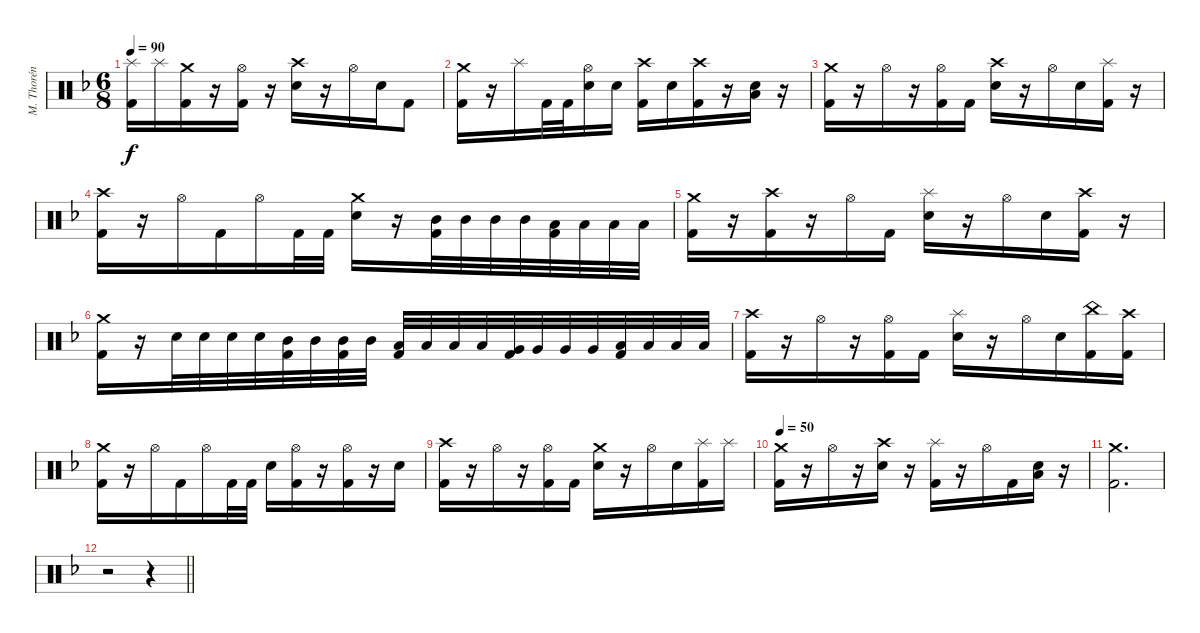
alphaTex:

\track ("M. Thorén (Drums)" "M. Thorén ") {instrument percussion}
\staff {score}
\articulation defaults
\ts (6 8)
\tempo 90
\clef neutral
\ks dminor
("Splash (hit)" "Kick (hit) 2").16{dy f} "Splash (hit)".16 ("Crash medium (hit)" "Kick (hit) 2").16 r.16 ("Hi-Hat (open)" "Kick (hit) 2").16 r.16 ("Crash high (hit)" "Electric Snare (hit)").16 r.16 "Hi-Hat (open)".16 "Electric Snare (hit)".16 "Kick (hit) 2".8 |
("Crash medium (hit)" "Kick (hit) 2").16 r.16 "Splash (hit)".16 "Kick (hit) 2".32 "Kick (hit) 2".32 ("Hi-Hat (open)" "Electric Snare (hit)").16 "Electric Snare (hit)".16 ("Crash high (hit)" "Kick (hit) 2").16 "Electric Snare (hit)".16 ("Crash high (hit)" "Kick (hit) 2").16 r.16 ("Electric Snare (hit)" "Low Floor Tom (hit)").16 r.16 |
("Crash medium (hit)" "Kick (hit) 2").16{volume 0} r.16 "Hi-Hat (open)".16 r.16 ("Hi-Hat (open)" "Kick (hit) 2").16 "Kick (hit) 2".16 ("Crash high (hit)" "Electric Snare (hit)").16 r.16 "Hi-Hat (open)".16 "Electric Snare (hit)".16 ("Splash (hit)" "Kick (hit) 2").16 r.16 |
("Crash high (hit)" "Kick (hit) 2").16 r.16 "Hi-Hat (open)".16 "Kick (hit) 2".16 "Hi-Hat (open)".16 "Kick (hit) 2".32 "Kick (hit) 2".32 ("Crash medium (hit)" "Electric Snare (hit)").16 r.16 ("Mid Tom (hit)" "Kick (hit) 2").32 "Mid Tom (hit)".32 "Mid Tom (hit)".32 "Mid Tom (hit)".32 ("Low Tom (hit)" "Kick (hit) 2").32 "Low Tom (hit)".32 "Low Tom (hit)".32 "Low Tom (hit)".32 |
("Crash medium (hit)" "Kick (hit) 2").16 r.16 ("Crash high (hit)" "Kick (hit) 2").16 r.16 "Hi-Hat (open)".16 "Kick (hit) 2".16 ("Splash (hit)" "Electric Snare (hit)").16 r.16 "Hi-Hat (open)".16 "Electric Snare (hit)".16 ("Crash high (hit)" "Kick (hit) 2").16 r.16 |
("Crash medium (hit)" "Kick (hit) 2").16 r.16 "Electric Snare (hit)".32 "Electric Snare (hit)".32 "Electric Snare (hit)".32 "Electric Snare (hit)".32 ("Mid Tom (hit)" "Kick (hit) 2").32 "Mid Tom (hit)".32 ("Mid Tom (hit)" "Kick (hit) 2").32 "Mid Tom (hit)".32 ("Low Tom (hit)" "Kick (hit) 2").32 "Low Tom (hit)".32 "Low Tom (hit)".32 "Low Tom (hit)".32 ("Very Low Tom (hit)" "Kick (hit) 2").32 "Very Low Tom (hit)".32 "Very Low Tom (hit)".32 "Very Low Tom (hit)".32 ("Low Floor Tom (hit)" "Kick (hit) 2").32 "Low Floor Tom (hit)".32 "Low Floor Tom (hit)".32 "Low Floor Tom (hit)".32 |
("Crash high (hit)" "Kick (hit) 2").16 r.16 "Hi-Hat (open)".16 r.16 ("Hi-Hat (open)" "Kick (hit) 2").16 "Kick (hit) 2".16 ("Splash (hit)" "Electric Snare (hit)").16 r.16 "Hi-Hat (open)".16 "Electric Snare (hit)".16 ("China (hit)" "Kick (hit) 2").16 ("Crash high (hit)" "Kick (hit) 2").16 |
("Crash medium (hit)" "Kick (hit) 2").16 r.16 "Hi-Hat (open)".16 "Kick (hit) 2".16 "Hi-Hat (open)".16 "Kick (hit) 2".32 "Kick (hit) 2".32 "Electric Snare (hit)".16 ("Hi-Hat (open)" "Kick (hit) 2").16 r.16 ("Hi-Hat (open)" "Kick (hit) 2").16 r.16 "Electric Snare (hit)".16 |
("Crash high (hit)" "Kick (hit) 2").16 r.16 "Hi-Hat (open)".16 r.16 ("Hi-Hat (open)" "Kick (hit) 2").16 "Kick (hit) 2".16 ("Crash medium (hit)" "Electric Snare (hit)").16 r.16 "Hi-Hat (open)".16 "Electric Snare (hit)".16 ("Splash (hit)" "Kick (hit) 2").16 "Splash (hit)".16 |
\tempo 50
("Crash medium (hit)" "Kick (hit) 2").16 r.16 "Hi-Hat (open)".16 r.16 ("Crash high (hit)" "Electric Snare (hit)").16 r.16 ("Splash (hit)" "Kick (hit) 2").16 r.16 "Hi-Hat (open)".16 "Kick (hit) 2".16 ("Electric Snare (hit)" "Low Floor Tom (hit)").16 r.16 |
("Crash medium (hit)" "Kick (hit) 2").2{d} |
\barLineRight lightlight
r.2 r.4
